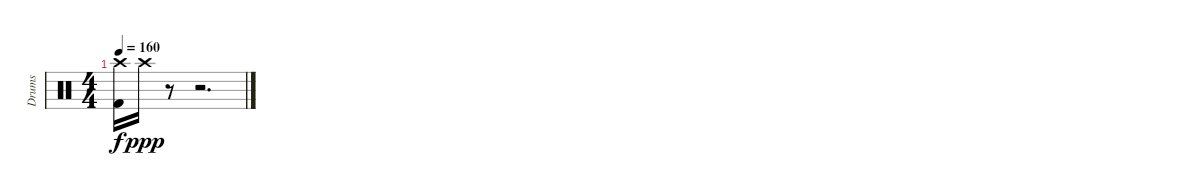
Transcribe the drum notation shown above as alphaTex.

\track ("Drums" "Drums") {instrument percussion}
\staff {score}
\articulation defaults
\ts (4 4)
\tempo 160
\clef neutral
\ks c
("Crash high (hit)" "Kick (hit) 2").16{dy f} "Crash high (hit)".16{dy ppp} r.8 r.2{d}
